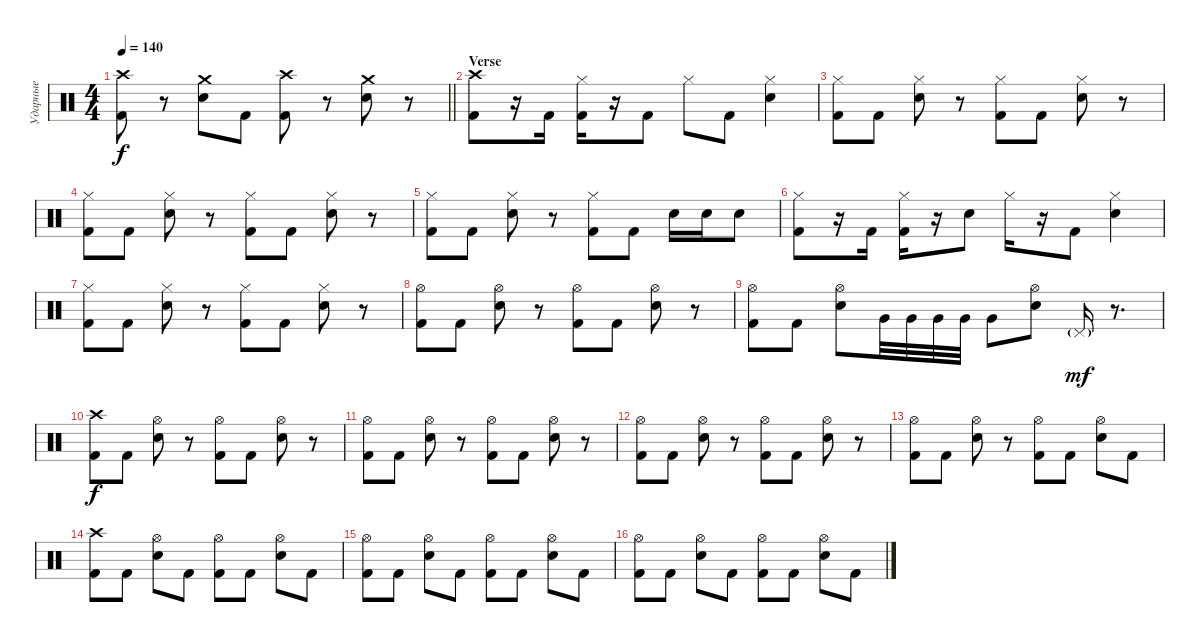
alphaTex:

\track ("Ударные" "Ударные") {instrument percussion}
\staff {score}
\articulation defaults
\ts (4 4)
\tempo 140
\clef neutral
\barLineRight lightlight
\ks c
("Crash high (hit)" "Kick (hit) 2").8{dy f} r.8 ("Crash medium (hit)" "Snare (hit) 2").8 "Kick (hit) 2".8 ("Crash high (hit)" "Kick (hit) 2").8 r.8 ("Crash medium (hit)" "Snare (hit) 2").8 r.8 |
\section ("" "Verse")
("Crash high (hit)" "Kick (hit) 2").8 r.16 "Kick (hit) 2".16 ("Hi-Hat (closed)" "Kick (hit) 2").16 r.16 "Kick (hit) 2".8 "Hi-Hat (closed)".8 "Kick (hit) 2".8 ("Hi-Hat (closed)" "Snare (hit) 2").4 |
("Hi-Hat (closed)" "Kick (hit) 2").8 "Kick (hit) 2".8 ("Hi-Hat (closed)" "Snare (hit) 2").8 r.8 ("Hi-Hat (closed)" "Kick (hit) 2").8 "Kick (hit) 2".8 ("Hi-Hat (closed)" "Snare (hit) 2").8 r.8 |
("Hi-Hat (closed)" "Kick (hit) 2").8 "Kick (hit) 2".8 ("Hi-Hat (closed)" "Snare (hit) 2").8 r.8 ("Hi-Hat (closed)" "Kick (hit) 2").8 "Kick (hit) 2".8 ("Hi-Hat (closed)" "Snare (hit) 2").8 r.8 |
("Hi-Hat (closed)" "Kick (hit) 2").8 "Kick (hit) 2".8 ("Hi-Hat (closed)" "Snare (hit) 2").8 r.8 ("Hi-Hat (closed)" "Kick (hit) 2").8 "Kick (hit) 2".8 "Snare (hit) 2".16 "Snare (hit) 2".16 "Snare (hit) 2".8 |
("Hi-Hat (closed)" "Kick (hit) 2").8 r.16 "Kick (hit) 2".16 ("Hi-Hat (closed)" "Kick (hit) 2").16 r.16 "Snare (hit) 2".8 "Hi-Hat (closed)".16 r.16 "Kick (hit) 2".8 ("Hi-Hat (closed)" "Snare (hit) 2").4 |
("Hi-Hat (closed)" "Kick (hit) 2").8 "Kick (hit) 2".8 ("Hi-Hat (closed)" "Snare (hit) 2").8 r.8 ("Hi-Hat (closed)" "Kick (hit) 2").8 "Kick (hit) 2".8 ("Hi-Hat (closed)" "Snare (hit) 2").8 r.8 |
("Hi-Hat (open)" "Kick (hit) 2").8 "Kick (hit) 2".8 ("Hi-Hat (open)" "Snare (hit) 2").8 r.8 ("Hi-Hat (open)" "Kick (hit) 2").8 "Kick (hit) 2".8 ("Hi-Hat (open)" "Snare (hit) 2").8 r.8 |
("Hi-Hat (open)" "Kick (hit) 2").8 "Kick (hit) 2".8 ("Hi-Hat (open)" "Snare (hit) 2").8 "Very Low Tom (hit)".32 "Very Low Tom (hit)".32 "Very Low Tom (hit)".32 "Very Low Tom (hit)".32 "Very Low Tom (hit)".8 ("Hi-Hat (open)" "Snare (hit) 2").8 "Pedal Hi-Hat (hit)"{g}.16{dy mf} r.8{d} |
("Crash high (hit)" "Kick (hit) 2").8{dy f} "Kick (hit) 2".8 ("Hi-Hat (open)" "Snare (hit) 2").8 r.8 ("Hi-Hat (open)" "Kick (hit) 2").8 "Kick (hit) 2".8 ("Hi-Hat (open)" "Snare (hit) 2").8 r.8 |
("Hi-Hat (open)" "Kick (hit) 2").8 "Kick (hit) 2".8 ("Hi-Hat (open)" "Snare (hit) 2").8 r.8 ("Hi-Hat (open)" "Kick (hit) 2").8 "Kick (hit) 2".8 ("Hi-Hat (open)" "Snare (hit) 2").8 r.8 |
("Hi-Hat (open)" "Kick (hit) 2").8 "Kick (hit) 2".8 ("Hi-Hat (open)" "Snare (hit) 2").8 r.8 ("Hi-Hat (open)" "Kick (hit) 2").8 "Kick (hit) 2".8 ("Hi-Hat (open)" "Snare (hit) 2").8 r.8 |
("Hi-Hat (open)" "Kick (hit) 2").8 "Kick (hit) 2".8 ("Hi-Hat (open)" "Snare (hit) 2").8 r.8 ("Hi-Hat (open)" "Kick (hit) 2").8 "Kick (hit) 2".8 ("Hi-Hat (open)" "Snare (hit) 2").8 "Kick (hit) 2".8 |
("Crash high (hit)" "Kick (hit) 2").8 "Kick (hit) 2".8 ("Hi-Hat (open)" "Snare (hit) 2").8 "Kick (hit) 2".8 ("Hi-Hat (open)" "Kick (hit) 2").8 "Kick (hit) 2".8 ("Hi-Hat (open)" "Snare (hit) 2").8 "Kick (hit) 2".8 |
("Hi-Hat (open)" "Kick (hit) 2").8 "Kick (hit) 2".8 ("Hi-Hat (open)" "Snare (hit) 2").8 "Kick (hit) 2".8 ("Hi-Hat (open)" "Kick (hit) 2").8 "Kick (hit) 2".8 ("Hi-Hat (open)" "Snare (hit) 2").8 "Kick (hit) 2".8 |
("Hi-Hat (open)" "Kick (hit) 2").8 "Kick (hit) 2".8 ("Hi-Hat (open)" "Snare (hit) 2").8 "Kick (hit) 2".8 ("Hi-Hat (open)" "Kick (hit) 2").8 "Kick (hit) 2".8 ("Hi-Hat (open)" "Snare (hit) 2").8 "Kick (hit) 2".8
